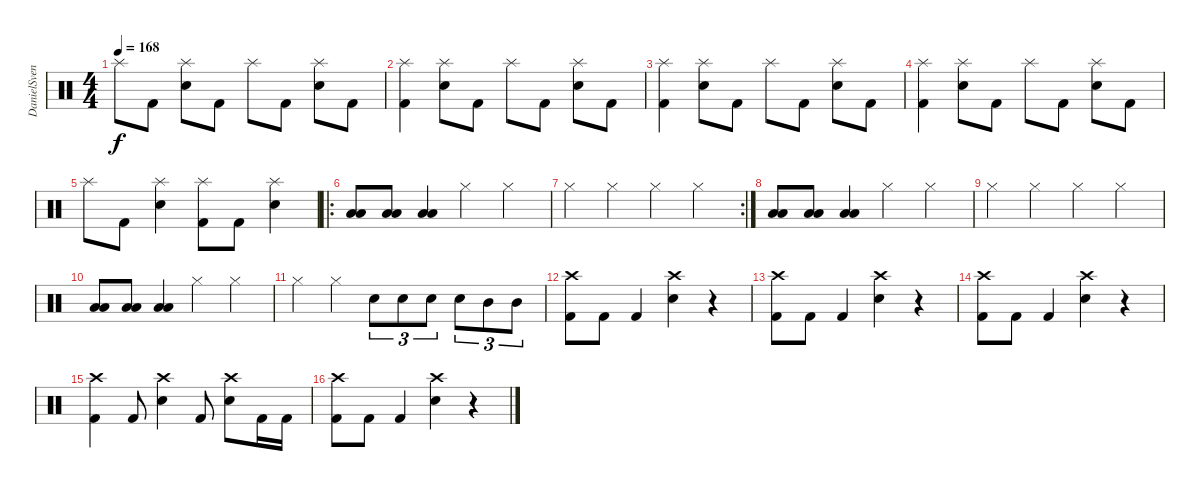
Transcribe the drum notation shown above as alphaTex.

\track ("DanielSvensson" "DanielSven") {instrument percussion}
\staff {score}
\articulation defaults
\ts (4 4)
\tempo 168
\clef neutral
\ks c "Splash (hit)".8{dy f} "Kick (hit) 2".8
("Splash (hit)" "Electric Snare (hit)").8 "Kick (hit) 2".8 "Splash (hit)".8 "Kick (hit) 2".8 ("Splash (hit)" "Electric Snare (hit)").8 "Kick (hit) 2".8 |
("Splash (hit)" "Kick (hit) 2").4 ("Splash (hit)" "Electric Snare (hit)").8 "Kick (hit) 2".8 "Splash (hit)".8 "Kick (hit) 2".8 ("Splash (hit)" "Electric Snare (hit)").8 "Kick (hit) 2".8 |
("Splash (hit)" "Kick (hit) 2").4 ("Splash (hit)" "Electric Snare (hit)").8 "Kick (hit) 2".8 "Splash (hit)".8 "Kick (hit) 2".8 ("Splash (hit)" "Electric Snare (hit)").8 "Kick (hit) 2".8 |
("Splash (hit)" "Kick (hit) 2").4 ("Splash (hit)" "Electric Snare (hit)").8 "Kick (hit) 2".8 "Splash (hit)".8 "Kick (hit) 2".8 ("Splash (hit)" "Electric Snare (hit)").8 "Kick (hit) 2".8 |
"Splash (hit)".8 "Kick (hit) 2".8 ("Splash (hit)" "Electric Snare (hit)").4 ("Splash (hit)" "Kick (hit) 2").8 "Kick (hit) 2".8 ("Splash (hit)" "Electric Snare (hit)").4 |
\ro
("Low Tom (hit)" "Low Floor Tom (hit)").8 ("Low Tom (hit)" "Low Floor Tom (hit)").8 ("Low Tom (hit)" "Low Floor Tom (hit)").4 "Hi-Hat (closed)".4 "Hi-Hat (closed)".4 |
\rc 2 "Hi-Hat (closed)".4 "Hi-Hat (closed)".4 "Hi-Hat (closed)".4 "Hi-Hat (closed)".4
|
("Low Tom (hit)" "Low Floor Tom (hit)").8 ("Low Tom (hit)" "Low Floor Tom (hit)").8 ("Low Tom (hit)" "Low Floor Tom (hit)").4 "Hi-Hat (closed)".4 "Hi-Hat (closed)".4 |
"Hi-Hat (closed)".4 "Hi-Hat (closed)".4 "Hi-Hat (closed)".4 "Hi-Hat (closed)".4 |
("Low Tom (hit)" "Low Floor Tom (hit)").8 ("Low Tom (hit)" "Low Floor Tom (hit)").8 ("Low Tom (hit)" "Low Floor Tom (hit)").4 "Hi-Hat (closed)".4 "Hi-Hat (closed)".4 |
"Hi-Hat (closed)".4 "Hi-Hat (closed)".4 "Electric Snare (hit)".8{tu (3 2)} "Electric Snare (hit)".8{tu (3 2)} "Electric Snare (hit)".8{tu (3 2)} "Electric Snare (hit)".8{tu (3 2)} "Mid Tom (hit)".8{tu (3 2)} "Mid Tom (hit)".8{tu (3 2)} |
("Crash high (hit)" "Kick (hit) 2").8 "Kick (hit) 2".8 "Kick (hit) 2".4 ("Crash high (hit)" "Electric Snare (hit)").4 r.4 |
("Crash high (hit)" "Kick (hit) 2").8 "Kick (hit) 2".8 "Kick (hit) 2".4 ("Crash high (hit)" "Electric Snare (hit)").4 r.4 |
("Crash high (hit)" "Kick (hit) 2").8 "Kick (hit) 2".8 "Kick (hit) 2".4 ("Crash high (hit)" "Electric Snare (hit)").4 r.4 |
("Crash high (hit)" "Kick (hit) 2").4 "Kick (hit) 2".8 ("Crash high (hit)" "Electric Snare (hit)").4 "Kick (hit) 2".8 ("Crash high (hit)" "Electric Snare (hit)").8 "Kick (hit) 2".16 "Kick (hit) 2".16 |
("Crash high (hit)" "Kick (hit) 2").8 "Kick (hit) 2".8 "Kick (hit) 2".4 ("Crash high (hit)" "Electric Snare (hit)").4 r.4
